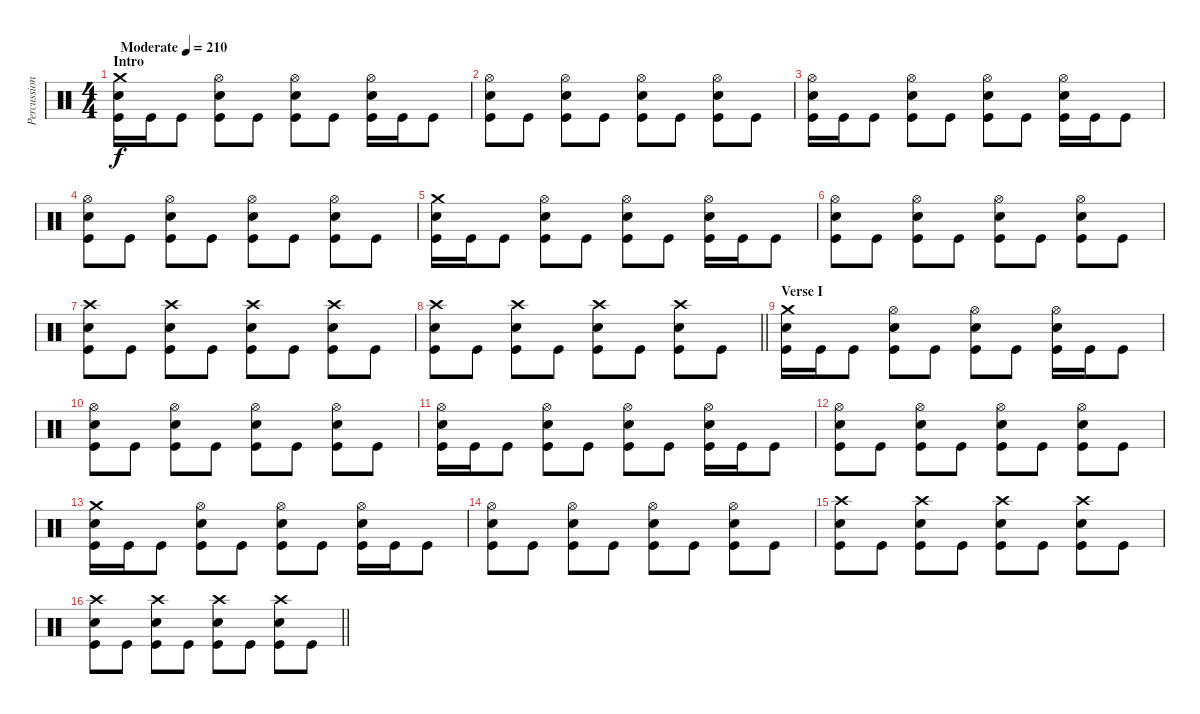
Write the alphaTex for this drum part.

\track ("Percussion" "Percussion") {instrument percussion}
\staff {score}
\articulation defaults
\ts (4 4)
\section ("" "Intro")
\tempo (210 "Moderate")
\clef neutral
\ks c
("Crash medium (hit)" "Electric Snare (hit)" "Kick (hit)").16{dy f} "Kick (hit)".16 "Kick (hit)".8 ("Hi-Hat (open)" "Electric Snare (hit)" "Kick (hit)").8 "Kick (hit)".8 ("Hi-Hat (open)" "Electric Snare (hit)" "Kick (hit)").8 "Kick (hit)".8 ("Hi-Hat (open)" "Electric Snare (hit)" "Kick (hit)").16 "Kick (hit)".16 "Kick (hit)".8 |
("Hi-Hat (open)" "Electric Snare (hit)" "Kick (hit)").8 "Kick (hit)".8 ("Hi-Hat (open)" "Electric Snare (hit)" "Kick (hit)").8 "Kick (hit)".8 ("Hi-Hat (open)" "Electric Snare (hit)" "Kick (hit)").8 "Kick (hit)".8 ("Hi-Hat (open)" "Electric Snare (hit)" "Kick (hit)").8 "Kick (hit)".8 |
("Hi-Hat (open)" "Electric Snare (hit)" "Kick (hit)").16 "Kick (hit)".16 "Kick (hit)".8 ("Hi-Hat (open)" "Electric Snare (hit)" "Kick (hit)").8 "Kick (hit)".8 ("Hi-Hat (open)" "Electric Snare (hit)" "Kick (hit)").8 "Kick (hit)".8 ("Hi-Hat (open)" "Electric Snare (hit)" "Kick (hit)").16 "Kick (hit)".16 "Kick (hit)".8 |
("Hi-Hat (open)" "Electric Snare (hit)" "Kick (hit)").8 "Kick (hit)".8 ("Hi-Hat (open)" "Electric Snare (hit)" "Kick (hit)").8 "Kick (hit)".8 ("Hi-Hat (open)" "Electric Snare (hit)" "Kick (hit)").8 "Kick (hit)".8 ("Hi-Hat (open)" "Electric Snare (hit)" "Kick (hit)").8 "Kick (hit)".8 |
("Crash medium (hit)" "Electric Snare (hit)" "Kick (hit)").16 "Kick (hit)".16 "Kick (hit)".8 ("Hi-Hat (open)" "Electric Snare (hit)" "Kick (hit)").8 "Kick (hit)".8 ("Hi-Hat (open)" "Electric Snare (hit)" "Kick (hit)").8 "Kick (hit)".8 ("Hi-Hat (open)" "Electric Snare (hit)" "Kick (hit)").16 "Kick (hit)".16 "Kick (hit)".8 |
("Hi-Hat (open)" "Electric Snare (hit)" "Kick (hit)").8 "Kick (hit)".8 ("Hi-Hat (open)" "Electric Snare (hit)" "Kick (hit)").8 "Kick (hit)".8 ("Hi-Hat (open)" "Electric Snare (hit)" "Kick (hit)").8 "Kick (hit)".8 ("Hi-Hat (open)" "Electric Snare (hit)" "Kick (hit)").8 "Kick (hit)".8 |
("Crash high (hit)" "Electric Snare (hit)" "Kick (hit)").8 "Kick (hit)".8 ("Crash high (hit)" "Electric Snare (hit)" "Kick (hit)").8 "Kick (hit)".8 ("Crash high (hit)" "Electric Snare (hit)" "Kick (hit)").8 "Kick (hit)".8 ("Crash high (hit)" "Electric Snare (hit)" "Kick (hit)").8 "Kick (hit)".8 |
\barLineRight lightlight
("Crash high (hit)" "Electric Snare (hit)" "Kick (hit)").8 "Kick (hit)".8 ("Crash high (hit)" "Electric Snare (hit)" "Kick (hit)").8 "Kick (hit)".8 ("Crash high (hit)" "Electric Snare (hit)" "Kick (hit)").8 "Kick (hit)".8 ("Crash high (hit)" "Electric Snare (hit)" "Kick (hit)").8 "Kick (hit)".8 |
\section ("" "Verse I")
("Crash medium (hit)" "Electric Snare (hit)" "Kick (hit)").16 "Kick (hit)".16 "Kick (hit)".8 ("Hi-Hat (open)" "Electric Snare (hit)" "Kick (hit)").8 "Kick (hit)".8 ("Hi-Hat (open)" "Electric Snare (hit)" "Kick (hit)").8 "Kick (hit)".8 ("Hi-Hat (open)" "Electric Snare (hit)" "Kick (hit)").16 "Kick (hit)".16 "Kick (hit)".8 |
("Hi-Hat (open)" "Electric Snare (hit)" "Kick (hit)").8 "Kick (hit)".8 ("Hi-Hat (open)" "Electric Snare (hit)" "Kick (hit)").8 "Kick (hit)".8 ("Hi-Hat (open)" "Electric Snare (hit)" "Kick (hit)").8 "Kick (hit)".8 ("Hi-Hat (open)" "Electric Snare (hit)" "Kick (hit)").8 "Kick (hit)".8 |
("Hi-Hat (open)" "Electric Snare (hit)" "Kick (hit)").16 "Kick (hit)".16 "Kick (hit)".8 ("Hi-Hat (open)" "Electric Snare (hit)" "Kick (hit)").8 "Kick (hit)".8 ("Hi-Hat (open)" "Electric Snare (hit)" "Kick (hit)").8 "Kick (hit)".8 ("Hi-Hat (open)" "Electric Snare (hit)" "Kick (hit)").16 "Kick (hit)".16 "Kick (hit)".8 |
("Hi-Hat (open)" "Electric Snare (hit)" "Kick (hit)").8 "Kick (hit)".8 ("Hi-Hat (open)" "Electric Snare (hit)" "Kick (hit)").8 "Kick (hit)".8 ("Hi-Hat (open)" "Electric Snare (hit)" "Kick (hit)").8 "Kick (hit)".8 ("Hi-Hat (open)" "Electric Snare (hit)" "Kick (hit)").8 "Kick (hit)".8 |
("Crash medium (hit)" "Electric Snare (hit)" "Kick (hit)").16 "Kick (hit)".16 "Kick (hit)".8 ("Hi-Hat (open)" "Electric Snare (hit)" "Kick (hit)").8 "Kick (hit)".8 ("Hi-Hat (open)" "Electric Snare (hit)" "Kick (hit)").8 "Kick (hit)".8 ("Hi-Hat (open)" "Electric Snare (hit)" "Kick (hit)").16 "Kick (hit)".16 "Kick (hit)".8 |
("Hi-Hat (open)" "Electric Snare (hit)" "Kick (hit)").8 "Kick (hit)".8 ("Hi-Hat (open)" "Electric Snare (hit)" "Kick (hit)").8 "Kick (hit)".8 ("Hi-Hat (open)" "Electric Snare (hit)" "Kick (hit)").8 "Kick (hit)".8 ("Hi-Hat (open)" "Electric Snare (hit)" "Kick (hit)").8 "Kick (hit)".8 |
("Crash high (hit)" "Electric Snare (hit)" "Kick (hit)").8 "Kick (hit)".8 ("Crash high (hit)" "Electric Snare (hit)" "Kick (hit)").8 "Kick (hit)".8 ("Crash high (hit)" "Electric Snare (hit)" "Kick (hit)").8 "Kick (hit)".8 ("Crash high (hit)" "Electric Snare (hit)" "Kick (hit)").8 "Kick (hit)".8 |
\barLineRight lightlight
("Crash high (hit)" "Electric Snare (hit)" "Kick (hit)").8 "Kick (hit)".8 ("Crash high (hit)" "Electric Snare (hit)" "Kick (hit)").8 "Kick (hit)".8 ("Crash high (hit)" "Electric Snare (hit)" "Kick (hit)").8 "Kick (hit)".8 ("Crash high (hit)" "Electric Snare (hit)" "Kick (hit)").8 "Kick (hit)".8
